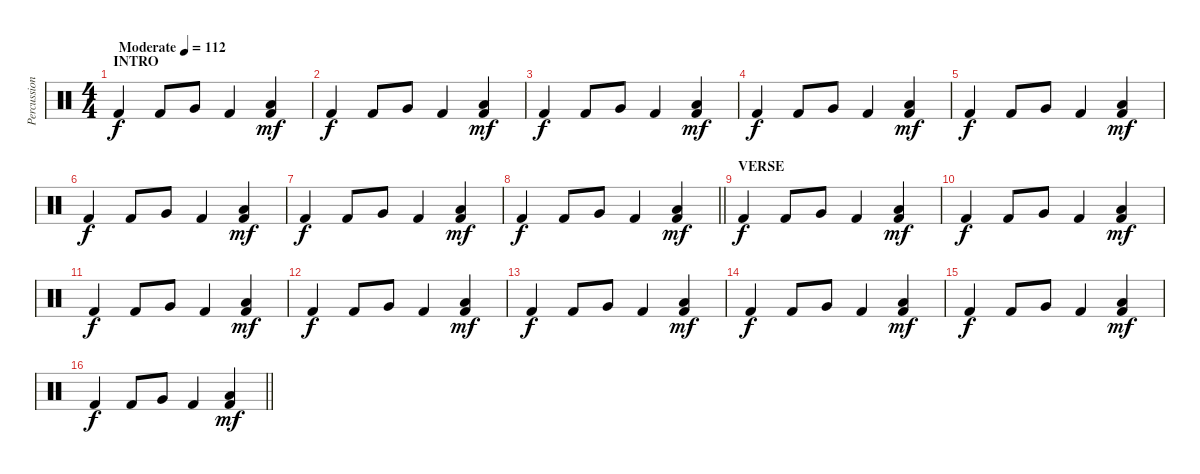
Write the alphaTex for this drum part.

\track ("Percussion" "Percussion") {instrument percussion}
\staff {score}
\articulation defaults
\ts (4 4)
\section ("" "INTRO")
\tempo (112 "Moderate")
\clef neutral
\ks c "Kick (hit) 2".4{dy f} "Kick (hit) 2".8 "Very Low Tom (hit)".8 "Kick (hit) 2".4
("Kick (hit) 2" "Low Floor Tom (hit)").4{dy mf} |
"Kick (hit) 2".4{dy f} "Kick (hit) 2".8 "Very Low Tom (hit)".8 "Kick (hit) 2".4 ("Kick (hit) 2" "Low Floor Tom (hit)").4{dy mf} |
"Kick (hit) 2".4{dy f} "Kick (hit) 2".8 "Very Low Tom (hit)".8 "Kick (hit) 2".4 ("Kick (hit) 2" "Low Floor Tom (hit)").4{dy mf} |
"Kick (hit) 2".4{dy f} "Kick (hit) 2".8 "Very Low Tom (hit)".8 "Kick (hit) 2".4 ("Kick (hit) 2" "Low Floor Tom (hit)").4{dy mf} |
"Kick (hit) 2".4{dy f} "Kick (hit) 2".8 "Very Low Tom (hit)".8 "Kick (hit) 2".4 ("Kick (hit) 2" "Low Floor Tom (hit)").4{dy mf} |
"Kick (hit) 2".4{dy f} "Kick (hit) 2".8 "Very Low Tom (hit)".8 "Kick (hit) 2".4 ("Kick (hit) 2" "Low Floor Tom (hit)").4{dy mf} |
"Kick (hit) 2".4{dy f} "Kick (hit) 2".8 "Very Low Tom (hit)".8 "Kick (hit) 2".4 ("Kick (hit) 2" "Low Floor Tom (hit)").4{dy mf} |
\barLineRight lightlight "Kick (hit) 2".4{dy f} "Kick (hit) 2".8 "Very Low Tom (hit)".8 "Kick (hit) 2".4
("Kick (hit) 2" "Low Floor Tom (hit)").4{dy mf} |
\section ("" "VERSE")
"Kick (hit) 2".4{dy f} "Kick (hit) 2".8 "Very Low Tom (hit)".8 "Kick (hit) 2".4 ("Kick (hit) 2" "Low Floor Tom (hit)").4{dy mf} |
"Kick (hit) 2".4{dy f} "Kick (hit) 2".8 "Very Low Tom (hit)".8 "Kick (hit) 2".4 ("Kick (hit) 2" "Low Floor Tom (hit)").4{dy mf} |
"Kick (hit) 2".4{dy f} "Kick (hit) 2".8 "Very Low Tom (hit)".8 "Kick (hit) 2".4 ("Kick (hit) 2" "Low Floor Tom (hit)").4{dy mf} |
"Kick (hit) 2".4{dy f} "Kick (hit) 2".8 "Very Low Tom (hit)".8 "Kick (hit) 2".4 ("Kick (hit) 2" "Low Floor Tom (hit)").4{dy mf} |
"Kick (hit) 2".4{dy f} "Kick (hit) 2".8 "Very Low Tom (hit)".8 "Kick (hit) 2".4 ("Kick (hit) 2" "Low Floor Tom (hit)").4{dy mf} |
"Kick (hit) 2".4{dy f} "Kick (hit) 2".8 "Very Low Tom (hit)".8 "Kick (hit) 2".4 ("Kick (hit) 2" "Low Floor Tom (hit)").4{dy mf} |
"Kick (hit) 2".4{dy f} "Kick (hit) 2".8 "Very Low Tom (hit)".8 "Kick (hit) 2".4 ("Kick (hit) 2" "Low Floor Tom (hit)").4{dy mf} |
\barLineRight lightlight "Kick (hit) 2".4{dy f} "Kick (hit) 2".8 "Very Low Tom (hit)".8 "Kick (hit) 2".4
("Kick (hit) 2" "Low Floor Tom (hit)").4{dy mf}
